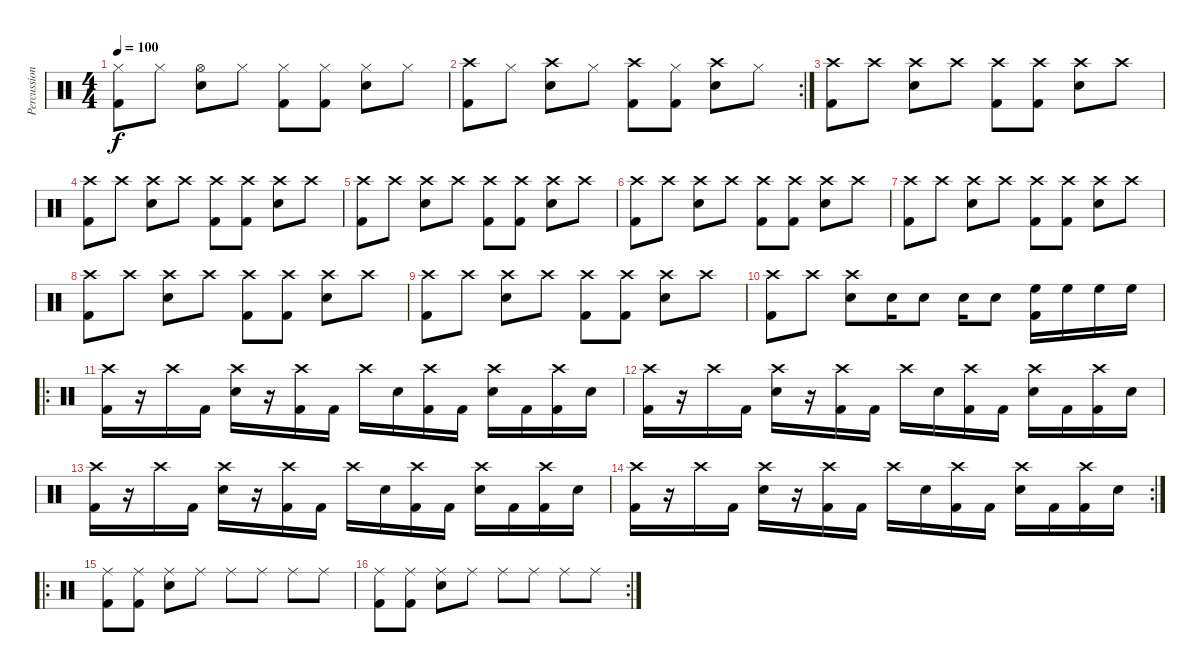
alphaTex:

\track ("Percussions" "Percussion") {instrument percussion}
\staff {score}
\articulation defaults
\ts (4 4)
\tempo 100
\clef neutral
\ks c
("Hi-Hat (closed)" "Kick (hit) 2").8{dy f} "Hi-Hat (closed)".8 ("Hi-Hat (open)" "Snare (hit) 2").8 "Hi-Hat (closed)".8 ("Hi-Hat (closed)" "Kick (hit) 2").8 ("Hi-Hat (closed)" "Kick (hit) 2").8 ("Hi-Hat (closed)" "Snare (hit) 2").8 "Hi-Hat (closed)".8 |
\rc 2
("Crash high (hit)" "Kick (hit) 2").8 "Hi-Hat (closed)".8 ("Crash high (hit)" "Snare (hit) 2").8 "Hi-Hat (closed)".8 ("Crash high (hit)" "Kick (hit) 2").8 ("Hi-Hat (closed)" "Kick (hit) 2").8 ("Crash high (hit)" "Snare (hit) 2").8 "Hi-Hat (closed)".8 |
("Crash high (hit)" "Kick (hit) 2").8 "Crash high (hit)".8 ("Crash high (hit)" "Snare (hit) 2").8 "Crash high (hit)".8 ("Crash high (hit)" "Kick (hit) 2").8 ("Crash high (hit)" "Kick (hit) 2").8 ("Crash high (hit)" "Snare (hit) 2").8 "Crash high (hit)".8 |
("Crash high (hit)" "Kick (hit) 2").8 "Crash high (hit)".8 ("Crash high (hit)" "Snare (hit) 2").8 "Crash high (hit)".8 ("Crash high (hit)" "Kick (hit) 2").8 ("Crash high (hit)" "Kick (hit) 2").8 ("Crash high (hit)" "Snare (hit) 2").8 "Crash high (hit)".8 |
("Crash high (hit)" "Kick (hit) 2").8 "Crash high (hit)".8 ("Crash high (hit)" "Snare (hit) 2").8 "Crash high (hit)".8 ("Crash high (hit)" "Kick (hit) 2").8 ("Crash high (hit)" "Kick (hit) 2").8 ("Crash high (hit)" "Snare (hit) 2").8 "Crash high (hit)".8 |
("Crash high (hit)" "Kick (hit) 2").8 "Crash high (hit)".8 ("Crash high (hit)" "Snare (hit) 2").8 "Crash high (hit)".8 ("Crash high (hit)" "Kick (hit) 2").8 ("Crash high (hit)" "Kick (hit) 2").8 ("Crash high (hit)" "Snare (hit) 2").8 "Crash high (hit)".8 |
("Crash high (hit)" "Kick (hit) 2").8 "Crash high (hit)".8 ("Crash high (hit)" "Snare (hit) 2").8 "Crash high (hit)".8 ("Crash high (hit)" "Kick (hit) 2").8 ("Crash high (hit)" "Kick (hit) 2").8 ("Crash high (hit)" "Snare (hit) 2").8 "Crash high (hit)".8 |
("Crash high (hit)" "Kick (hit) 2").8 "Crash high (hit)".8 ("Crash high (hit)" "Snare (hit) 2").8 "Crash high (hit)".8 ("Crash high (hit)" "Kick (hit) 2").8 ("Crash high (hit)" "Kick (hit) 2").8 ("Crash high (hit)" "Snare (hit) 2").8 "Crash high (hit)".8 |
("Crash high (hit)" "Kick (hit) 2").8 "Crash high (hit)".8 ("Crash high (hit)" "Snare (hit) 2").8 "Crash high (hit)".8 ("Crash high (hit)" "Kick (hit) 2").8 ("Crash high (hit)" "Kick (hit) 2").8 ("Crash high (hit)" "Snare (hit) 2").8 "Crash high (hit)".8 |
("Crash high (hit)" "Kick (hit) 2").8 "Crash high (hit)".8 ("Crash high (hit)" "Snare (hit) 2").8 "Snare (hit) 2".16 "Snare (hit) 2".8 "Snare (hit) 2".16 "Snare (hit) 2".8 ("High Floor Tom (hit)" "Kick (hit) 2").16 "High Floor Tom (hit)".16 "High Floor Tom (hit)".16 "High Floor Tom (hit)".16 |
\ro
("Crash high (hit)" "Kick (hit) 2").16 r.16 "Crash high (hit)".16 "Kick (hit) 2".16 ("Crash high (hit)" "Snare (hit) 2").16 r.16 ("Crash high (hit)" "Kick (hit) 2").16 "Kick (hit) 2".16 "Crash high (hit)".16 "Snare (hit) 2".16 ("Crash high (hit)" "Kick (hit) 2").16 "Kick (hit) 2".16 ("Crash high (hit)" "Snare (hit) 2").16 "Kick (hit) 2".16 ("Crash high (hit)" "Kick (hit) 2").16 "Snare (hit) 2".16 |
("Crash high (hit)" "Kick (hit) 2").16 r.16 "Crash high (hit)".16 "Kick (hit) 2".16 ("Crash high (hit)" "Snare (hit) 2").16 r.16 ("Crash high (hit)" "Kick (hit) 2").16 "Kick (hit) 2".16 "Crash high (hit)".16 "Snare (hit) 2".16 ("Crash high (hit)" "Kick (hit) 2").16 "Kick (hit) 2".16 ("Crash high (hit)" "Snare (hit) 2").16 "Kick (hit) 2".16 ("Crash high (hit)" "Kick (hit) 2").16 "Snare (hit) 2".16 |
("Crash high (hit)" "Kick (hit) 2").16 r.16 "Crash high (hit)".16 "Kick (hit) 2".16 ("Crash high (hit)" "Snare (hit) 2").16 r.16 ("Crash high (hit)" "Kick (hit) 2").16 "Kick (hit) 2".16 "Crash high (hit)".16 "Snare (hit) 2".16 ("Crash high (hit)" "Kick (hit) 2").16 "Kick (hit) 2".16 ("Crash high (hit)" "Snare (hit) 2").16 "Kick (hit) 2".16 ("Crash high (hit)" "Kick (hit) 2").16 "Snare (hit) 2".16 |
\rc 2
("Crash high (hit)" "Kick (hit) 2").16 r.16 "Crash high (hit)".16 "Kick (hit) 2".16 ("Crash high (hit)" "Snare (hit) 2").16 r.16 ("Crash high (hit)" "Kick (hit) 2").16 "Kick (hit) 2".16 "Crash high (hit)".16 "Snare (hit) 2".16 ("Crash high (hit)" "Kick (hit) 2").16 "Kick (hit) 2".16 ("Crash high (hit)" "Snare (hit) 2").16 "Kick (hit) 2".16 ("Crash high (hit)" "Kick (hit) 2").16 "Snare (hit) 2".16 |
\ro
("Ride (middle)" "Kick (hit) 2").8 ("Ride (middle)" "Kick (hit) 2").8 ("Ride (middle)" "Snare (hit) 2").8 "Ride (middle)".8 "Ride (middle)".8 "Ride (middle)".8 "Ride (middle)".8 "Ride (middle)".8 |
\rc 2
("Ride (middle)" "Kick (hit) 2").8 ("Ride (middle)" "Kick (hit) 2").8 ("Ride (middle)" "Snare (hit) 2").8 "Ride (middle)".8 "Ride (middle)".8 "Ride (middle)".8 "Ride (middle)".8 "Ride (middle)".8
